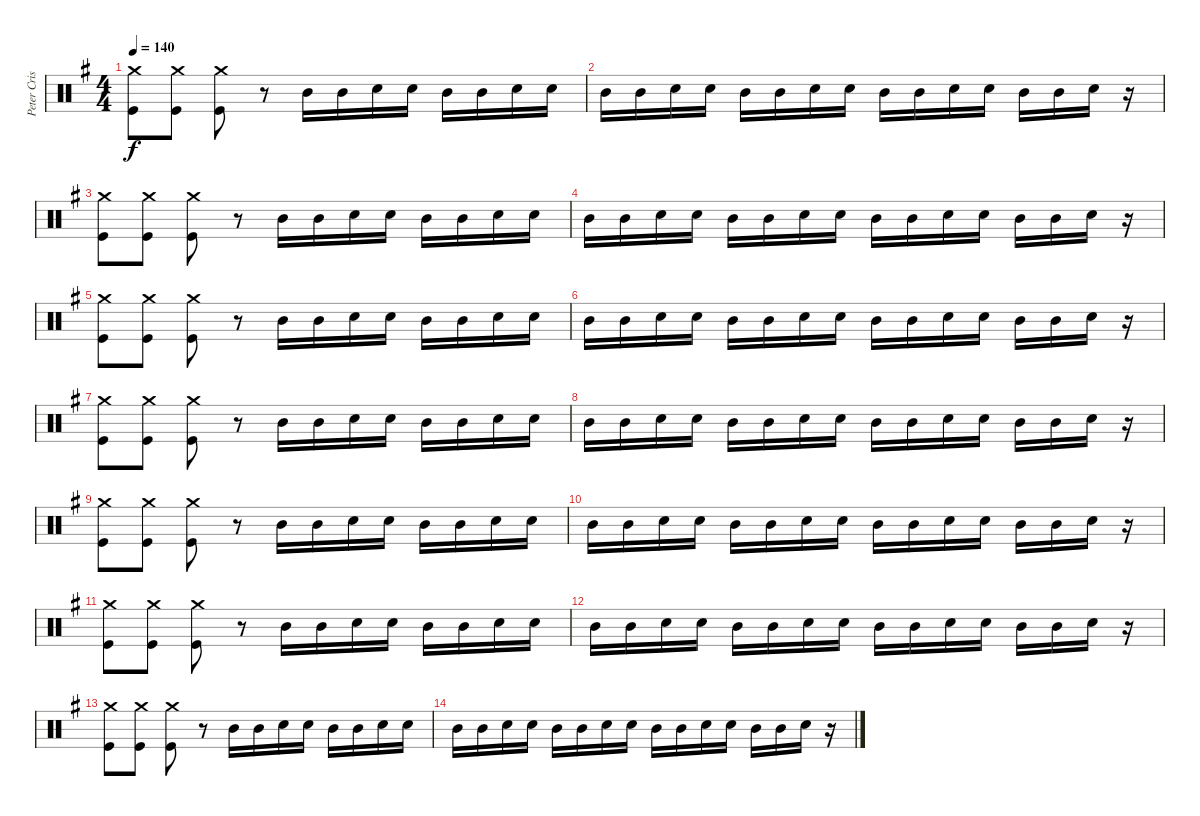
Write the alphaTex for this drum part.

\track ("Peter Criss" "Peter Cris") {instrument percussion}
\staff {score}
\articulation defaults
\ts (4 4)
\tempo 140
\clef neutral
\ks g
("Crash medium (hit)" "Kick (hit)").8{dy f} ("Crash medium (hit)" "Kick (hit)").8 ("Crash medium (hit)" "Kick (hit)").8 r.8 "Mid Tom (hit)".16 "Mid Tom (hit)".16 "Snare (hit) 2".16 "Snare (hit) 2".16 "Mid Tom (hit)".16 "Mid Tom (hit)".16 "Snare (hit) 2".16 "Snare (hit) 2".16 |
"Mid Tom (hit)".16 "Mid Tom (hit)".16 "Snare (hit) 2".16 "Snare (hit) 2".16 "Mid Tom (hit)".16 "Mid Tom (hit)".16 "Snare (hit) 2".16 "Snare (hit) 2".16 "Mid Tom (hit)".16 "Mid Tom (hit)".16 "Snare (hit) 2".16 "Snare (hit) 2".16 "Mid Tom (hit)".16 "Mid Tom (hit)".16 "Snare (hit) 2".16 r.16 |
("Crash medium (hit)" "Kick (hit)").8 ("Crash medium (hit)" "Kick (hit)").8 ("Crash medium (hit)" "Kick (hit)").8 r.8 "Mid Tom (hit)".16 "Mid Tom (hit)".16 "Snare (hit) 2".16 "Snare (hit) 2".16 "Mid Tom (hit)".16 "Mid Tom (hit)".16 "Snare (hit) 2".16 "Snare (hit) 2".16 |
"Mid Tom (hit)".16 "Mid Tom (hit)".16 "Snare (hit) 2".16 "Snare (hit) 2".16 "Mid Tom (hit)".16 "Mid Tom (hit)".16 "Snare (hit) 2".16 "Snare (hit) 2".16 "Mid Tom (hit)".16 "Mid Tom (hit)".16 "Snare (hit) 2".16 "Snare (hit) 2".16 "Mid Tom (hit)".16 "Mid Tom (hit)".16 "Snare (hit) 2".16 r.16 |
("Crash medium (hit)" "Kick (hit)").8 ("Crash medium (hit)" "Kick (hit)").8 ("Crash medium (hit)" "Kick (hit)").8 r.8 "Mid Tom (hit)".16 "Mid Tom (hit)".16 "Snare (hit) 2".16 "Snare (hit) 2".16 "Mid Tom (hit)".16 "Mid Tom (hit)".16 "Snare (hit) 2".16 "Snare (hit) 2".16 |
"Mid Tom (hit)".16 "Mid Tom (hit)".16 "Snare (hit) 2".16 "Snare (hit) 2".16 "Mid Tom (hit)".16 "Mid Tom (hit)".16 "Snare (hit) 2".16 "Snare (hit) 2".16 "Mid Tom (hit)".16 "Mid Tom (hit)".16 "Snare (hit) 2".16 "Snare (hit) 2".16 "Mid Tom (hit)".16 "Mid Tom (hit)".16 "Snare (hit) 2".16 r.16 |
("Crash medium (hit)" "Kick (hit)").8{volume 2} ("Crash medium (hit)" "Kick (hit)").8 ("Crash medium (hit)" "Kick (hit)").8 r.8 "Mid Tom (hit)".16 "Mid Tom (hit)".16 "Snare (hit) 2".16 "Snare (hit) 2".16 "Mid Tom (hit)".16 "Mid Tom (hit)".16 "Snare (hit) 2".16 "Snare (hit) 2".16 |
"Mid Tom (hit)".16 "Mid Tom (hit)".16 "Snare (hit) 2".16 "Snare (hit) 2".16 "Mid Tom (hit)".16 "Mid Tom (hit)".16 "Snare (hit) 2".16 "Snare (hit) 2".16 "Mid Tom (hit)".16 "Mid Tom (hit)".16 "Snare (hit) 2".16 "Snare (hit) 2".16 "Mid Tom (hit)".16 "Mid Tom (hit)".16 "Snare (hit) 2".16 r.16 |
("Crash medium (hit)" "Kick (hit)").8 ("Crash medium (hit)" "Kick (hit)").8 ("Crash medium (hit)" "Kick (hit)").8 r.8 "Mid Tom (hit)".16 "Mid Tom (hit)".16 "Snare (hit) 2".16 "Snare (hit) 2".16 "Mid Tom (hit)".16 "Mid Tom (hit)".16 "Snare (hit) 2".16 "Snare (hit) 2".16 |
"Mid Tom (hit)".16 "Mid Tom (hit)".16 "Snare (hit) 2".16 "Snare (hit) 2".16 "Mid Tom (hit)".16 "Mid Tom (hit)".16 "Snare (hit) 2".16 "Snare (hit) 2".16 "Mid Tom (hit)".16 "Mid Tom (hit)".16 "Snare (hit) 2".16 "Snare (hit) 2".16 "Mid Tom (hit)".16 "Mid Tom (hit)".16 "Snare (hit) 2".16 r.16 |
("Crash medium (hit)" "Kick (hit)").8{volume 0} ("Crash medium (hit)" "Kick (hit)").8 ("Crash medium (hit)" "Kick (hit)").8 r.8 "Mid Tom (hit)".16 "Mid Tom (hit)".16 "Snare (hit) 2".16 "Snare (hit) 2".16 "Mid Tom (hit)".16 "Mid Tom (hit)".16 "Snare (hit) 2".16 "Snare (hit) 2".16 |
"Mid Tom (hit)".16 "Mid Tom (hit)".16 "Snare (hit) 2".16 "Snare (hit) 2".16 "Mid Tom (hit)".16 "Mid Tom (hit)".16 "Snare (hit) 2".16 "Snare (hit) 2".16 "Mid Tom (hit)".16 "Mid Tom (hit)".16 "Snare (hit) 2".16 "Snare (hit) 2".16 "Mid Tom (hit)".16 "Mid Tom (hit)".16 "Snare (hit) 2".16 r.16 |
("Crash medium (hit)" "Kick (hit)").8 ("Crash medium (hit)" "Kick (hit)").8 ("Crash medium (hit)" "Kick (hit)").8 r.8 "Mid Tom (hit)".16 "Mid Tom (hit)".16 "Snare (hit) 2".16 "Snare (hit) 2".16 "Mid Tom (hit)".16 "Mid Tom (hit)".16 "Snare (hit) 2".16 "Snare (hit) 2".16 |
"Mid Tom (hit)".16 "Mid Tom (hit)".16 "Snare (hit) 2".16 "Snare (hit) 2".16 "Mid Tom (hit)".16 "Mid Tom (hit)".16 "Snare (hit) 2".16 "Snare (hit) 2".16 "Mid Tom (hit)".16 "Mid Tom (hit)".16 "Snare (hit) 2".16 "Snare (hit) 2".16 "Mid Tom (hit)".16 "Mid Tom (hit)".16 "Snare (hit) 2".16 r.16
